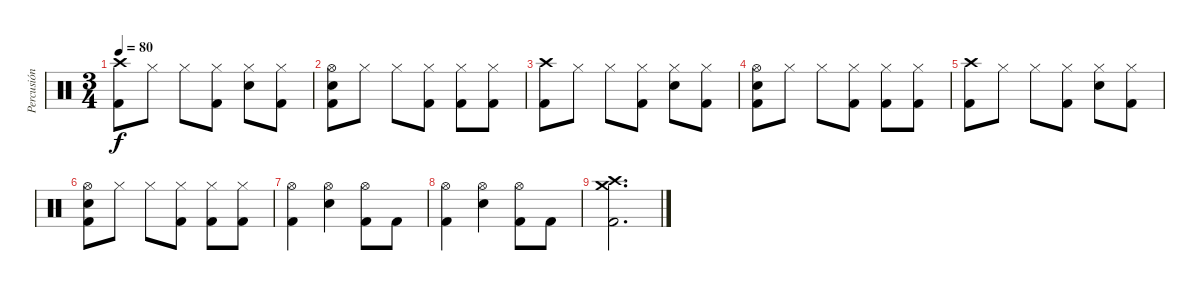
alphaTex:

\track ("Percusión" "Percusión") {instrument percussion}
\staff {score}
\articulation defaults
\ts (3 4)
\tempo 80
\clef neutral
\ks c
("Crash high (hit)" "Kick (hit) 2").8{dy f} "Hi-Hat (closed)".8 "Hi-Hat (closed)".8 ("Hi-Hat (closed)" "Kick (hit) 2").8 ("Hi-Hat (closed)" "Electric Snare (hit)").8 ("Hi-Hat (closed)" "Kick (hit) 2").8 |
("Hi-Hat (open)" "Electric Snare (hit)" "Kick (hit) 2").8 "Hi-Hat (closed)".8 "Hi-Hat (closed)".8 ("Hi-Hat (closed)" "Kick (hit) 2").8 ("Hi-Hat (closed)" "Kick (hit) 2").8 ("Hi-Hat (closed)" "Kick (hit) 2").8 |
("Crash high (hit)" "Kick (hit) 2").8 "Hi-Hat (closed)".8 "Hi-Hat (closed)".8 ("Hi-Hat (closed)" "Kick (hit) 2").8 ("Hi-Hat (closed)" "Electric Snare (hit)").8 ("Hi-Hat (closed)" "Kick (hit) 2").8 |
("Hi-Hat (open)" "Electric Snare (hit)" "Kick (hit) 2").8 "Hi-Hat (closed)".8 "Hi-Hat (closed)".8 ("Hi-Hat (closed)" "Kick (hit) 2").8 ("Hi-Hat (closed)" "Kick (hit) 2").8 ("Hi-Hat (closed)" "Kick (hit) 2").8 |
("Crash high (hit)" "Kick (hit) 2").8 "Hi-Hat (closed)".8 "Hi-Hat (closed)".8 ("Hi-Hat (closed)" "Kick (hit) 2").8 ("Hi-Hat (closed)" "Electric Snare (hit)").8 ("Hi-Hat (closed)" "Kick (hit) 2").8 |
("Hi-Hat (open)" "Electric Snare (hit)" "Kick (hit) 2").8 "Hi-Hat (closed)".8 "Hi-Hat (closed)".8 ("Hi-Hat (closed)" "Kick (hit) 2").8 ("Hi-Hat (closed)" "Kick (hit) 2").8 ("Hi-Hat (closed)" "Kick (hit) 2").8 |
("Hi-Hat (open)" "Kick (hit) 2").4 ("Hi-Hat (open)" "Electric Snare (hit)").4 ("Hi-Hat (open)" "Kick (hit) 2").8 "Kick (hit) 2".8 |
("Hi-Hat (open)" "Kick (hit) 2").4 ("Hi-Hat (open)" "Electric Snare (hit)").4 ("Hi-Hat (open)" "Kick (hit) 2").8 "Kick (hit) 2".8 |
("Crash medium (hit)" "Crash high (hit)" "Kick (hit) 2").2{d}
